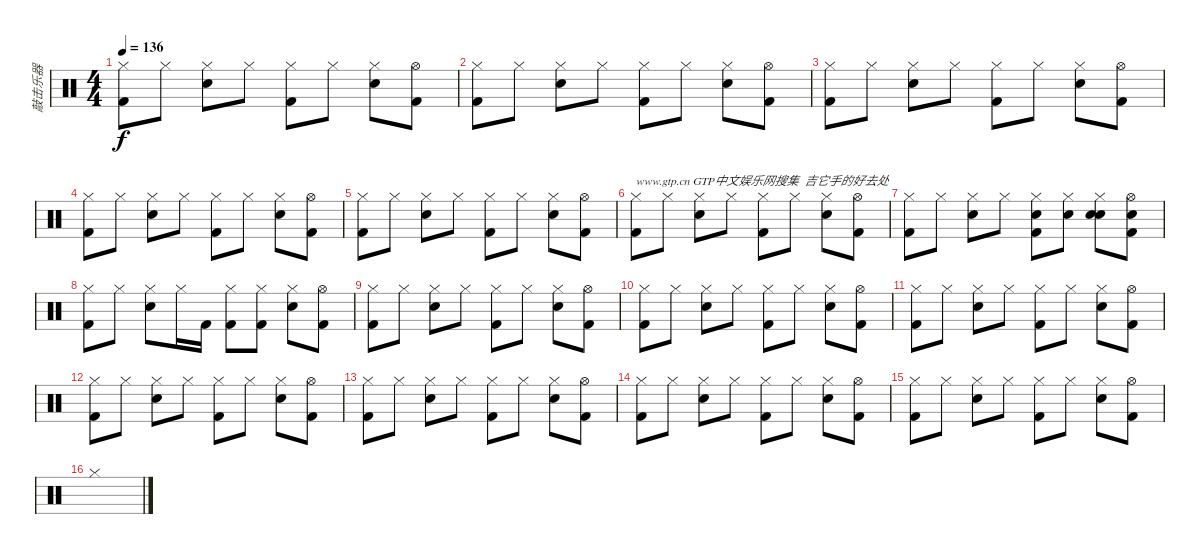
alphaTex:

\track ("敲击乐器" "敲击乐器") {instrument percussion}
\staff {score}
\articulation defaults
\ts (4 4)
\tempo 136
\clef neutral
\ks c
("Hi-Hat (closed)" "Kick (hit) 2").8{dy f} "Hi-Hat (closed)".8 ("Hi-Hat (closed)" "Electric Snare (hit)").8 "Hi-Hat (closed)".8 ("Hi-Hat (closed)" "Kick (hit) 2").8 "Hi-Hat (closed)".8 ("Hi-Hat (closed)" "Electric Snare (hit)").8 ("Hi-Hat (open)" "Kick (hit) 2").8 |
("Hi-Hat (closed)" "Kick (hit) 2").8 "Hi-Hat (closed)".8 ("Hi-Hat (closed)" "Electric Snare (hit)").8 "Hi-Hat (closed)".8 ("Hi-Hat (closed)" "Kick (hit) 2").8 "Hi-Hat (closed)".8 ("Hi-Hat (closed)" "Electric Snare (hit)").8 ("Hi-Hat (open)" "Kick (hit) 2").8 |
("Hi-Hat (closed)" "Kick (hit) 2").8 "Hi-Hat (closed)".8 ("Hi-Hat (closed)" "Electric Snare (hit)").8 "Hi-Hat (closed)".8 ("Hi-Hat (closed)" "Kick (hit) 2").8 "Hi-Hat (closed)".8 ("Hi-Hat (closed)" "Electric Snare (hit)").8 ("Hi-Hat (open)" "Kick (hit) 2").8 |
("Hi-Hat (closed)" "Kick (hit) 2").8 "Hi-Hat (closed)".8 ("Hi-Hat (closed)" "Electric Snare (hit)").8 "Hi-Hat (closed)".8 ("Hi-Hat (closed)" "Kick (hit) 2").8 "Hi-Hat (closed)".8 ("Hi-Hat (closed)" "Electric Snare (hit)").8 ("Hi-Hat (open)" "Kick (hit) 2").8 |
("Hi-Hat (closed)" "Kick (hit) 2").8 "Hi-Hat (closed)".8 ("Hi-Hat (closed)" "Electric Snare (hit)").8 "Hi-Hat (closed)".8 ("Hi-Hat (closed)" "Kick (hit) 2").8 "Hi-Hat (closed)".8 ("Hi-Hat (closed)" "Electric Snare (hit)").8 ("Hi-Hat (open)" "Kick (hit) 2").8 |
("Hi-Hat (closed)" "Kick (hit) 2").8{txt "www.gtp.cn GTP中文娱乐网搜集  吉它手的好去处"} "Hi-Hat (closed)".8 ("Hi-Hat (closed)" "Electric Snare (hit)").8 "Hi-Hat (closed)".8 ("Hi-Hat (closed)" "Kick (hit) 2").8 "Hi-Hat (closed)".8 ("Hi-Hat (closed)" "Electric Snare (hit)").8 ("Hi-Hat (open)" "Kick (hit) 2").8 |
("Hi-Hat (closed)" "Kick (hit) 2").8 "Hi-Hat (closed)".8 ("Hi-Hat (closed)" "Electric Snare (hit)").8 "Hi-Hat (closed)".8 ("Hi-Hat (closed)" "Snare (hit) 2" "Kick (hit) 2").8 ("Hi-Hat (closed)" "Snare (hit) 2").8 ("Hi-Hat (closed)" "Electric Snare (hit)" "Snare (hit) 2").8 ("Hi-Hat (open)" "Snare (hit) 2" "Kick (hit) 2").8 |
("Hi-Hat (closed)" "Kick (hit) 2").8 "Hi-Hat (closed)".8 ("Hi-Hat (closed)" "Electric Snare (hit)").8 "Hi-Hat (closed)".16 "Kick (hit) 2".16 ("Hi-Hat (closed)" "Kick (hit) 2").8 ("Hi-Hat (closed)" "Kick (hit) 2").8 ("Hi-Hat (closed)" "Electric Snare (hit)").8 ("Hi-Hat (open)" "Kick (hit) 2").8 |
("Hi-Hat (closed)" "Kick (hit) 2").8 "Hi-Hat (closed)".8 ("Hi-Hat (closed)" "Electric Snare (hit)").8 "Hi-Hat (closed)".8 ("Hi-Hat (closed)" "Kick (hit) 2").8 "Hi-Hat (closed)".8 ("Hi-Hat (closed)" "Electric Snare (hit)").8 ("Hi-Hat (open)" "Kick (hit) 2").8 |
("Hi-Hat (closed)" "Kick (hit) 2").8 "Hi-Hat (closed)".8 ("Hi-Hat (closed)" "Electric Snare (hit)").8 "Hi-Hat (closed)".8 ("Hi-Hat (closed)" "Kick (hit) 2").8 "Hi-Hat (closed)".8 ("Hi-Hat (closed)" "Electric Snare (hit)").8 ("Hi-Hat (open)" "Kick (hit) 2").8 |
("Hi-Hat (closed)" "Kick (hit) 2").8 "Hi-Hat (closed)".8 ("Hi-Hat (closed)" "Electric Snare (hit)").8 "Hi-Hat (closed)".8 ("Hi-Hat (closed)" "Kick (hit) 2").8 "Hi-Hat (closed)".8 ("Hi-Hat (closed)" "Electric Snare (hit)").8 ("Hi-Hat (open)" "Kick (hit) 2").8 |
("Hi-Hat (closed)" "Kick (hit) 2").8 "Hi-Hat (closed)".8 ("Hi-Hat (closed)" "Electric Snare (hit)").8 "Hi-Hat (closed)".8 ("Hi-Hat (closed)" "Kick (hit) 2").8 "Hi-Hat (closed)".8 ("Hi-Hat (closed)" "Electric Snare (hit)").8 ("Hi-Hat (open)" "Kick (hit) 2").8 |
("Hi-Hat (closed)" "Kick (hit) 2").8 "Hi-Hat (closed)".8 ("Hi-Hat (closed)" "Electric Snare (hit)").8 "Hi-Hat (closed)".8 ("Hi-Hat (closed)" "Kick (hit) 2").8 "Hi-Hat (closed)".8 ("Hi-Hat (closed)" "Electric Snare (hit)").8 ("Hi-Hat (open)" "Kick (hit) 2").8 |
("Hi-Hat (closed)" "Kick (hit) 2").8 "Hi-Hat (closed)".8 ("Hi-Hat (closed)" "Electric Snare (hit)").8 "Hi-Hat (closed)".8 ("Hi-Hat (closed)" "Kick (hit) 2").8 "Hi-Hat (closed)".8 ("Hi-Hat (closed)" "Electric Snare (hit)").8 ("Hi-Hat (open)" "Kick (hit) 2").8 |
("Hi-Hat (closed)" "Kick (hit) 2").8 "Hi-Hat (closed)".8 ("Hi-Hat (closed)" "Electric Snare (hit)").8 "Hi-Hat (closed)".8 ("Hi-Hat (closed)" "Kick (hit) 2").8 "Hi-Hat (closed)".8 ("Hi-Hat (closed)" "Electric Snare (hit)").8 ("Hi-Hat (open)" "Kick (hit) 2").8 |
"Hi-Hat (closed)".1
